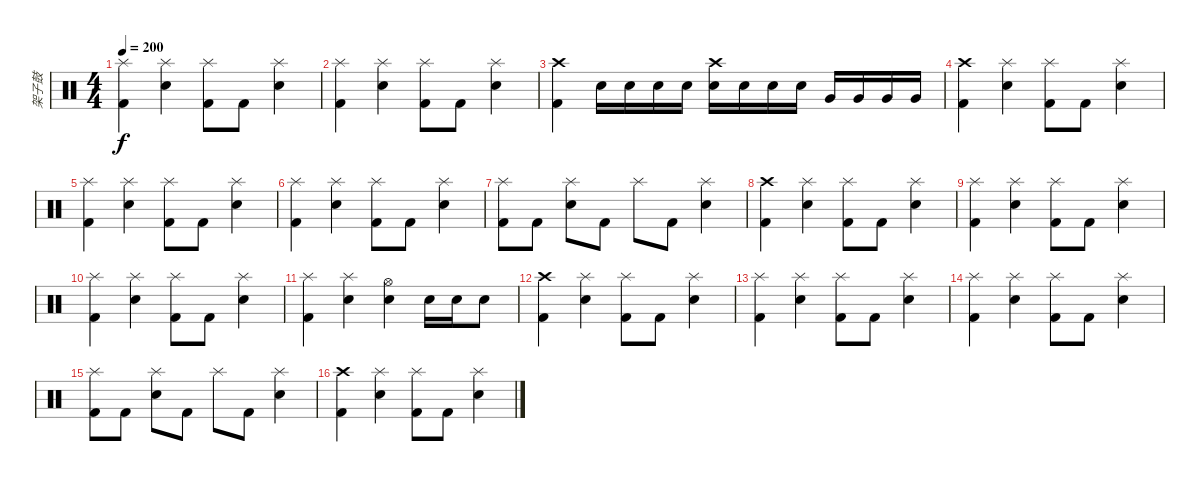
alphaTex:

\track ("架子鼓" "架子鼓") {instrument percussion}
\staff {score}
\articulation defaults
\ts (4 4)
\tempo 200
\clef neutral
\ks c
("Splash (hit)" "Kick (hit) 2").4{dy f} ("Splash (hit)" "Snare (hit) 2").4 ("Splash (hit)" "Kick (hit) 2").8 "Kick (hit) 2".8 ("Splash (hit)" "Snare (hit) 2").4 |
("Splash (hit)" "Kick (hit) 2").4 ("Splash (hit)" "Snare (hit) 2").4 ("Splash (hit)" "Kick (hit) 2").8 "Kick (hit) 2".8 ("Splash (hit)" "Snare (hit) 2").4 |
("Crash high (hit)" "Kick (hit) 2").4 "Snare (hit) 2".16 "Snare (hit) 2".16 "Snare (hit) 2".16 "Snare (hit) 2".16 ("Crash high (hit)" "Electric Snare (hit)").16 "Electric Snare (hit)".16 "Electric Snare (hit)".16 "Electric Snare (hit)".16 "Very Low Tom (hit)".16 "Very Low Tom (hit)".16 "Very Low Tom (hit)".16 "Very Low Tom (hit)".16 |
("Crash high (hit)" "Kick (hit) 2").4 ("Splash (hit)" "Snare (hit) 2").4 ("Splash (hit)" "Kick (hit) 2").8 "Kick (hit) 2".8 ("Splash (hit)" "Snare (hit) 2").4 |
("Splash (hit)" "Kick (hit) 2").4 ("Splash (hit)" "Snare (hit) 2").4 ("Splash (hit)" "Kick (hit) 2").8 "Kick (hit) 2".8 ("Splash (hit)" "Snare (hit) 2").4 |
("Splash (hit)" "Kick (hit) 2").4 ("Splash (hit)" "Snare (hit) 2").4 ("Splash (hit)" "Kick (hit) 2").8 "Kick (hit) 2".8 ("Splash (hit)" "Snare (hit) 2").4 |
("Splash (hit)" "Kick (hit) 2").8 "Kick (hit) 2".8 ("Splash (hit)" "Snare (hit) 2").8 "Kick (hit) 2".8 "Splash (hit)".8 "Kick (hit) 2".8 ("Splash (hit)" "Snare (hit) 2").4 |
("Crash high (hit)" "Kick (hit) 2").4 ("Splash (hit)" "Snare (hit) 2").4 ("Splash (hit)" "Kick (hit) 2").8 "Kick (hit) 2".8 ("Splash (hit)" "Snare (hit) 2").4 |
("Splash (hit)" "Kick (hit) 2").4 ("Splash (hit)" "Snare (hit) 2").4 ("Splash (hit)" "Kick (hit) 2").8 "Kick (hit) 2".8 ("Splash (hit)" "Snare (hit) 2").4 |
("Splash (hit)" "Kick (hit) 2").4 ("Splash (hit)" "Snare (hit) 2").4 ("Splash (hit)" "Kick (hit) 2").8 "Kick (hit) 2".8 ("Splash (hit)" "Snare (hit) 2").4 |
("Splash (hit)" "Kick (hit) 2").4 ("Splash (hit)" "Snare (hit) 2").4 ("Hi-Hat (open)" "Snare (hit) 2").4 "Snare (hit) 2".16 "Snare (hit) 2".16 "Snare (hit) 2".8 |
("Crash high (hit)" "Kick (hit) 2").4 ("Splash (hit)" "Snare (hit) 2").4 ("Splash (hit)" "Kick (hit) 2").8 "Kick (hit) 2".8 ("Splash (hit)" "Snare (hit) 2").4 |
("Splash (hit)" "Kick (hit) 2").4 ("Splash (hit)" "Snare (hit) 2").4 ("Splash (hit)" "Kick (hit) 2").8 "Kick (hit) 2".8 ("Splash (hit)" "Snare (hit) 2").4 |
("Splash (hit)" "Kick (hit) 2").4 ("Splash (hit)" "Snare (hit) 2").4 ("Splash (hit)" "Kick (hit) 2").8 "Kick (hit) 2".8 ("Splash (hit)" "Snare (hit) 2").4 |
("Splash (hit)" "Kick (hit) 2").8 "Kick (hit) 2".8 ("Splash (hit)" "Snare (hit) 2").8 "Kick (hit) 2".8 "Splash (hit)".8 "Kick (hit) 2".8 ("Splash (hit)" "Snare (hit) 2").4 |
("Crash high (hit)" "Kick (hit) 2").4 ("Splash (hit)" "Snare (hit) 2").4 ("Splash (hit)" "Kick (hit) 2").8 "Kick (hit) 2".8 ("Splash (hit)" "Snare (hit) 2").4
